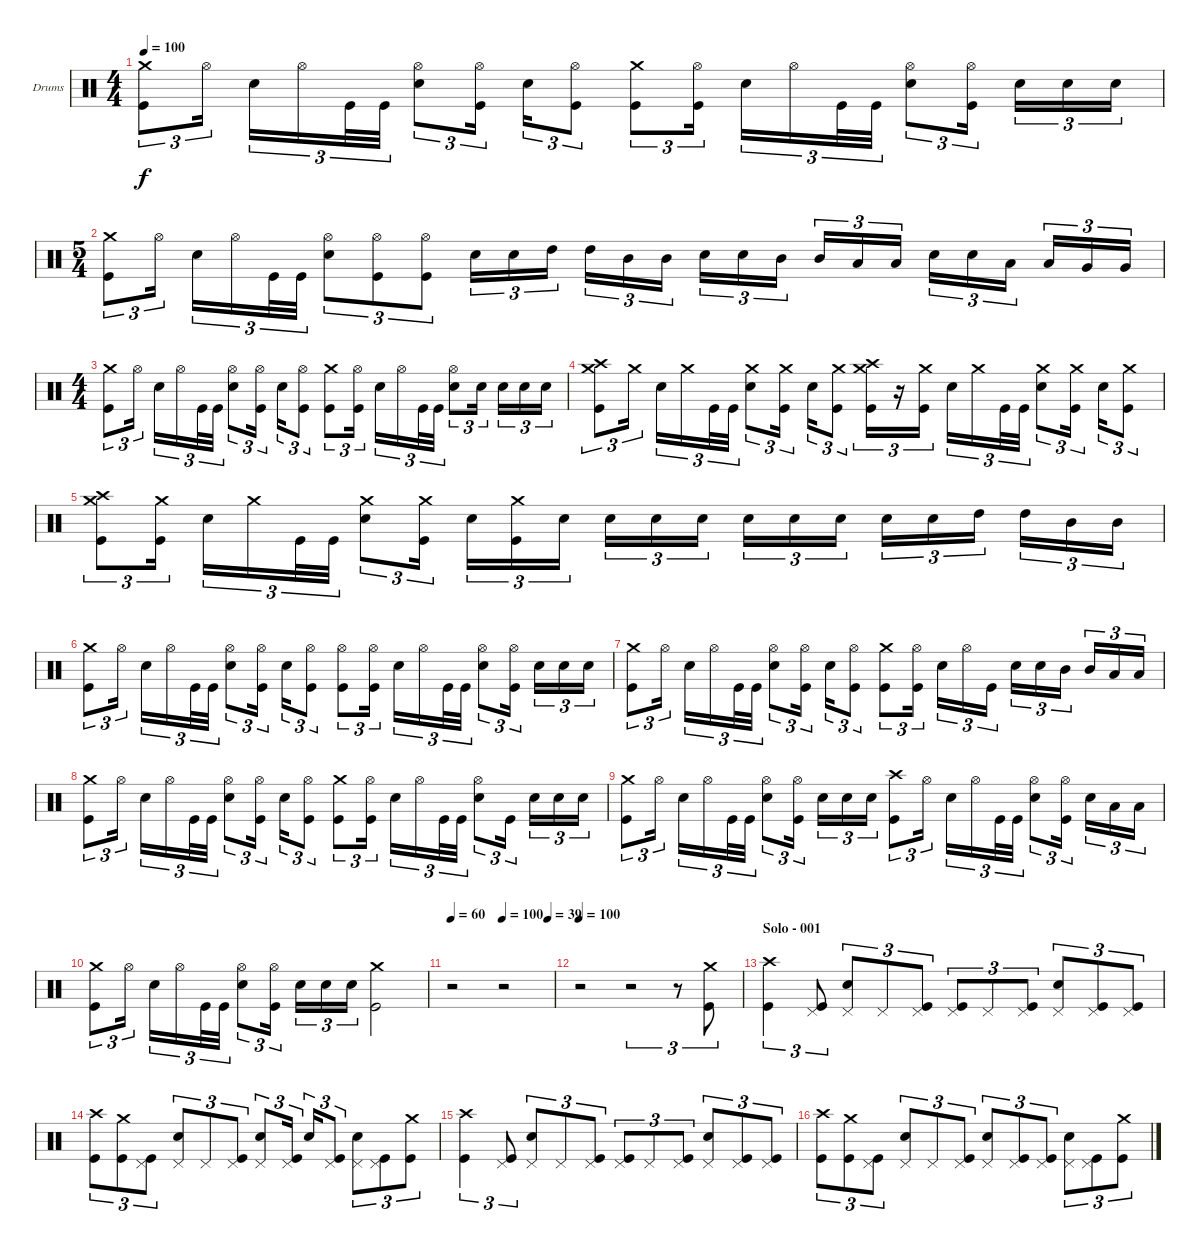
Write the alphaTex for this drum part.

\bracketExtendMode groupsimilarinstruments
\firstSystemTrackNameOrientation horizontal
\otherSystemsTrackNameOrientation horizontal
\track ("drums (Anton Zulganov)" "Drums") {instrument percussion}
\staff {score}
\articulation defaults
\ts (4 4)
\beaming (8 2 2 2 2)
\tempo 100
\clef neutral
\ks aminor
("Kick (hit)" "Crash medium (hit)").8{tu (3 2) dy f} "Hi-Hat (open)".16{tu (3 2)} "Snare (hit) 2".16{tu (3 2)} "Hi-Hat (open)".16{tu (3 2)} "Kick (hit)".32{tu (3 2)} "Kick (hit)".32{tu (3 2)} ("Snare (hit) 2" "Hi-Hat (open)").8{tu (3 2)} ("Kick (hit)" "Hi-Hat (open)").16{tu (3 2)} "Snare (hit) 2".16{tu (3 2)} ("Kick (hit)" "Hi-Hat (open)").8{tu (3 2)} ("Kick (hit)" "Crash medium (hit)").8{tu (3 2)} ("Hi-Hat (open)" "Kick (hit)").16{tu (3 2)} "Snare (hit) 2".16{tu (3 2)} "Hi-Hat (open)".16{tu (3 2)} "Kick (hit)".32{tu (3 2)} "Kick (hit)".32{tu (3 2)} ("Snare (hit) 2" "Hi-Hat (open)").8{tu (3 2)} ("Kick (hit)" "Hi-Hat (open)").16{tu (3 2)} "Snare (hit) 2".16{tu (3 2)} "Snare (hit) 2".16{tu (3 2)} "Snare (hit) 2".16{tu (3 2)} |
\ts (5 4)
\beaming (8 2 2 2 4)
("Kick (hit)" "Crash medium (hit)").8{tu (3 2)} "Hi-Hat (open)".16{tu (3 2)} "Snare (hit) 2".16{tu (3 2)} "Hi-Hat (open)".16{tu (3 2)} "Kick (hit)".32{tu (3 2)} "Kick (hit)".32{tu (3 2)} ("Snare (hit) 2" "Hi-Hat (open)").8{tu (3 2)} ("Kick (hit)" "Hi-Hat (open)").8{tu (3 2)} ("Kick (hit)" "Hi-Hat (open)").8{tu (3 2)} "Snare (hit) 2".16{tu (3 2)} "Snare (hit) 2".16{tu (3 2)} "High Tom (hit)".16{tu (3 2)} "High Tom (hit)".16{tu (3 2)} "Mid Tom (hit)".16{tu (3 2)} "Mid Tom (hit)".16{tu (3 2)} "Snare (hit) 2".16{tu (3 2)} "Snare (hit) 2".16{tu (3 2)} "Mid Tom (hit)".16{tu (3 2)} "Mid Tom (hit)".16{tu (3 2)} "Low Tom (hit)".16{tu (3 2)} "Low Tom (hit)".16{tu (3 2)} "Snare (hit) 2".16{tu (3 2)} "Snare (hit) 2".16{tu (3 2)} "Low Tom (hit)".16{tu (3 2)} "Low Tom (hit)".16{tu (3 2)} "Very Low Tom (hit)".16{tu (3 2)} "Very Low Tom (hit)".16{tu (3 2)} |
\ts (4 4)
\beaming (8 2 2 2 2)
("Kick (hit)" "Crash medium (hit)").8{tu (3 2)} "Hi-Hat (open)".16{tu (3 2)} "Snare (hit) 2".16{tu (3 2)} "Hi-Hat (open)".16{tu (3 2)} "Kick (hit)".32{tu (3 2)} "Kick (hit)".32{tu (3 2)} ("Snare (hit) 2" "Hi-Hat (open)").8{tu (3 2)} ("Kick (hit)" "Hi-Hat (open)").16{tu (3 2)} "Snare (hit) 2".16{tu (3 2)} ("Kick (hit)" "Hi-Hat (open)").8{tu (3 2)} ("Kick (hit)" "Crash medium (hit)").8{tu (3 2)} ("Hi-Hat (open)" "Kick (hit)").16{tu (3 2)} "Snare (hit) 2".16{tu (3 2)} "Hi-Hat (open)".16{tu (3 2)} "Kick (hit)".32{tu (3 2)} "Kick (hit)".32{tu (3 2)} ("Snare (hit) 2" "Hi-Hat (open)").8{tu (3 2)} "Snare (hit) 2".16{tu (3 2)} "Snare (hit) 2".16{tu (3 2)} "Snare (hit) 2".16{tu (3 2)} "Snare (hit) 2".16{tu (3 2)} |
("Kick (hit)" "Crash medium (hit)" "Crash high (hit)").8{tu (3 2)} "Crash medium (hit)".16{tu (3 2)} "Snare (hit) 2".16{tu (3 2)} "Crash medium (hit)".16{tu (3 2)} "Kick (hit)".32{tu (3 2)} "Kick (hit)".32{tu (3 2)} ("Snare (hit) 2" "Crash medium (hit)").8{tu (3 2)} ("Kick (hit)" "Crash medium (hit)").16{tu (3 2)} "Snare (hit) 2".16{tu (3 2)} ("Kick (hit)" "Crash medium (hit)").8{tu (3 2)} ("Kick (hit)" "Crash medium (hit)" "Crash high (hit)").16{tu (3 2)} r.16{tu (3 2)} ("Kick (hit)" "Crash medium (hit)").16{tu (3 2)} "Snare (hit) 2".16{tu (3 2)} "Crash medium (hit)".16{tu (3 2)} "Kick (hit)".32{tu (3 2)} "Kick (hit)".32{tu (3 2)} ("Snare (hit) 2" "Crash medium (hit)").8{tu (3 2)} ("Kick (hit)" "Crash medium (hit)").16{tu (3 2)} "Snare (hit) 2".16{tu (3 2)} ("Kick (hit)" "Crash medium (hit)").8{tu (3 2)} |
("Kick (hit)" "Crash medium (hit)" "Crash high (hit)").8{tu (3 2)} ("Kick (hit)" "Crash medium (hit)").16{tu (3 2)} "Snare (hit) 2".16{tu (3 2)} "Crash medium (hit)".16{tu (3 2)} "Kick (hit)".32{tu (3 2)} "Kick (hit)".32{tu (3 2)} ("Snare (hit) 2" "Crash medium (hit)").8{tu (3 2)} ("Kick (hit)" "Crash medium (hit)").16{tu (3 2)} "Snare (hit) 2".16{tu (3 2)} ("Kick (hit)" "Crash medium (hit)").16{tu (3 2)} "Snare (hit) 2".16{tu (3 2)} "Snare (hit) 2".16{tu (3 2)} "Snare (hit) 2".16{tu (3 2)} "Snare (hit) 2".16{tu (3 2)} "Snare (hit) 2".16{tu (3 2)} "Snare (hit) 2".16{tu (3 2)} "Snare (hit) 2".16{tu (3 2)} "Snare (hit) 2".16{tu (3 2)} "Snare (hit) 2".16{tu (3 2)} "High Tom (hit)".16{tu (3 2)} "High Tom (hit)".16{tu (3 2)} "Mid Tom (hit)".16{tu (3 2)} "Mid Tom (hit)".16{tu (3 2)} |
("Kick (hit)" "Crash medium (hit)").8{tu (3 2)} "Hi-Hat (open)".16{tu (3 2)} "Snare (hit) 2".16{tu (3 2)} "Hi-Hat (open)".16{tu (3 2)} "Kick (hit)".32{tu (3 2)} "Kick (hit)".32{tu (3 2)} ("Snare (hit) 2" "Hi-Hat (open)").8{tu (3 2)} ("Kick (hit)" "Hi-Hat (open)").16{tu (3 2)} "Snare (hit) 2".16{tu (3 2)} ("Kick (hit)" "Hi-Hat (open)").8{tu (3 2)} ("Kick (hit)" "Hi-Hat (open)").8{tu (3 2)} ("Hi-Hat (open)" "Kick (hit)").16{tu (3 2)} "Snare (hit) 2".16{tu (3 2)} "Hi-Hat (open)".16{tu (3 2)} "Kick (hit)".32{tu (3 2)} "Kick (hit)".32{tu (3 2)} ("Snare (hit) 2" "Hi-Hat (open)").8{tu (3 2)} ("Kick (hit)" "Hi-Hat (open)").16{tu (3 2)} "Snare (hit) 2".16{tu (3 2)} "Snare (hit) 2".16{tu (3 2)} "Snare (hit) 2".16{tu (3 2)} |
("Kick (hit)" "Crash medium (hit)").8{tu (3 2)} "Hi-Hat (open)".16{tu (3 2)} "Snare (hit) 2".16{tu (3 2)} "Hi-Hat (open)".16{tu (3 2)} "Kick (hit)".32{tu (3 2)} "Kick (hit)".32{tu (3 2)} ("Snare (hit) 2" "Hi-Hat (open)").8{tu (3 2)} ("Kick (hit)" "Hi-Hat (open)").16{tu (3 2)} "Snare (hit) 2".16{tu (3 2)} ("Kick (hit)" "Hi-Hat (open)").8{tu (3 2)} ("Kick (hit)" "Crash medium (hit)").8{tu (3 2)} ("Hi-Hat (open)" "Kick (hit)").16{tu (3 2)} "Snare (hit) 2".16{tu (3 2)} "Hi-Hat (open)".16{tu (3 2)} "Kick (hit)".16{tu (3 2)} "Snare (hit) 2".16{tu (3 2)} "Snare (hit) 2".16{tu (3 2)} "Mid Tom (hit)".16{tu (3 2)} "Mid Tom (hit)".16{tu (3 2)} "Low Tom (hit)".16{tu (3 2)} "Low Tom (hit)".16{tu (3 2)} |
("Kick (hit)" "Crash medium (hit)").8{tu (3 2)} "Hi-Hat (open)".16{tu (3 2)} "Snare (hit) 2".16{tu (3 2)} "Hi-Hat (open)".16{tu (3 2)} "Kick (hit)".32{tu (3 2)} "Kick (hit)".32{tu (3 2)} ("Snare (hit) 2" "Hi-Hat (open)").8{tu (3 2)} ("Kick (hit)" "Hi-Hat (open)").16{tu (3 2)} "Snare (hit) 2".16{tu (3 2)} ("Hi-Hat (open)" "Kick (hit)").8{tu (3 2)} ("Kick (hit)" "Crash medium (hit)").8{tu (3 2)} ("Hi-Hat (open)" "Kick (hit)").16{tu (3 2)} "Snare (hit) 2".16{tu (3 2)} "Hi-Hat (open)".16{tu (3 2)} "Kick (hit)".32{tu (3 2)} "Kick (hit)".32{tu (3 2)} ("Snare (hit) 2" "Hi-Hat (open)").8{tu (3 2)} "Kick (hit)".16{tu (3 2)} "Snare (hit) 2".16{tu (3 2)} "Snare (hit) 2".16{tu (3 2)} "Snare (hit) 2".16{tu (3 2)} |
("Kick (hit)" "Crash medium (hit)").8{tu (3 2)} "Hi-Hat (open)".16{tu (3 2)} "Snare (hit) 2".16{tu (3 2)} "Hi-Hat (open)".16{tu (3 2)} "Kick (hit)".32{tu (3 2)} "Kick (hit)".32{tu (3 2)} ("Snare (hit) 2" "Hi-Hat (open)").8{tu (3 2)} ("Kick (hit)" "Hi-Hat (open)").16{tu (3 2)} "Snare (hit) 2".16{tu (3 2)} "Snare (hit) 2".16{tu (3 2)} "Snare (hit) 2".16{tu (3 2)} ("Kick (hit)" "Crash high (hit)").8{tu (3 2)} "Hi-Hat (open)".16{tu (3 2)} "Snare (hit) 2".16{tu (3 2)} "Hi-Hat (open)".16{tu (3 2)} "Kick (hit)".32{tu (3 2)} "Kick (hit)".32{tu (3 2)} ("Snare (hit) 2" "Hi-Hat (open)").8{tu (3 2)} ("Kick (hit)" "Hi-Hat (open)").16{tu (3 2)} "Snare (hit) 2".16{tu (3 2)} "Low Tom (hit)".16{tu (3 2)} "Low Tom (hit)".16{tu (3 2)} |
("Kick (hit)" "Crash medium (hit)").8{tu (3 2)} "Hi-Hat (open)".16{tu (3 2)} "Snare (hit) 2".16{tu (3 2)} "Hi-Hat (open)".16{tu (3 2)} "Kick (hit)".32{tu (3 2)} "Kick (hit)".32{tu (3 2)} ("Snare (hit) 2" "Hi-Hat (open)").8{tu (3 2)} ("Kick (hit)" "Hi-Hat (open)").16{tu (3 2)} "Snare (hit) 2".16{tu (3 2)} "Snare (hit) 2".16{tu (3 2)} "Snare (hit) 2".16{tu (3 2)} ("Kick (hit)" "Crash medium (hit)").2 |
\tempo 60
\tempo (100 0.5)
\tempo (39 0.94375)
r.2 r.2 |
\tempo 100
r.2 r.2{tu (3 2)} r.8{tu (3 2)} ("Kick (hit)" "Crash medium (hit)").8{tu (3 2)} |
\section ("" "Solo - 001")
("Kick (hit)" "Crash high (hit)").4{tu (3 2)} ("Kick (hit)" "Pedal Hi-Hat (hit)").8{tu (3 2)} ("Snare (hit) 2" "Pedal Hi-Hat (hit)").8{tu (3 2)} "Pedal Hi-Hat (hit)".8{tu (3 2)} ("Kick (hit)" "Pedal Hi-Hat (hit)").8{tu (3 2)} ("Kick (hit)" "Pedal Hi-Hat (hit)").8{tu (3 2)} "Pedal Hi-Hat (hit)".8{tu (3 2)} ("Kick (hit)" "Pedal Hi-Hat (hit)").8{tu (3 2)} ("Snare (hit) 2" "Pedal Hi-Hat (hit)").8{tu (3 2)} ("Kick (hit)" "Pedal Hi-Hat (hit)").8{tu (3 2)} ("Kick (hit)" "Pedal Hi-Hat (hit)").8{tu (3 2)} |
("Kick (hit)" "Crash high (hit)").8{tu (3 2)} ("Kick (hit)" "Crash medium (hit)").8{tu (3 2)} ("Kick (hit)" "Pedal Hi-Hat (hit)").8{tu (3 2)} ("Snare (hit) 2" "Pedal Hi-Hat (hit)").8{tu (3 2)} "Pedal Hi-Hat (hit)".8{tu (3 2)} ("Kick (hit)" "Pedal Hi-Hat (hit)").8{tu (3 2)} ("Snare (hit) 2" "Pedal Hi-Hat (hit)").8{tu (3 2)} ("Pedal Hi-Hat (hit)" "Kick (hit)").16{tu (3 2)} "Snare (hit) 2".16{tu (3 2)} ("Pedal Hi-Hat (hit)" "Kick (hit)").8{tu (3 2)} ("Snare (hit) 2" "Pedal Hi-Hat (hit)").8{tu (3 2)} ("Kick (hit)" "Pedal Hi-Hat (hit)").8{tu (3 2)} ("Kick (hit)" "Crash medium (hit)").8{tu (3 2)} |
("Kick (hit)" "Crash high (hit)").4{tu (3 2)} ("Kick (hit)" "Pedal Hi-Hat (hit)").8{tu (3 2)} ("Snare (hit) 2" "Pedal Hi-Hat (hit)").8{tu (3 2)} "Pedal Hi-Hat (hit)".8{tu (3 2)} ("Kick (hit)" "Pedal Hi-Hat (hit)").8{tu (3 2)} ("Kick (hit)" "Pedal Hi-Hat (hit)").8{tu (3 2)} "Pedal Hi-Hat (hit)".8{tu (3 2)} ("Kick (hit)" "Pedal Hi-Hat (hit)").8{tu (3 2)} ("Snare (hit) 2" "Pedal Hi-Hat (hit)").8{tu (3 2)} ("Kick (hit)" "Pedal Hi-Hat (hit)").8{tu (3 2)} ("Kick (hit)" "Pedal Hi-Hat (hit)").8{tu (3 2)} |
("Kick (hit)" "Crash high (hit)").8{tu (3 2)} ("Kick (hit)" "Crash medium (hit)").8{tu (3 2)} ("Kick (hit)" "Pedal Hi-Hat (hit)").8{tu (3 2)} ("Snare (hit) 2" "Pedal Hi-Hat (hit)").8{tu (3 2)} "Pedal Hi-Hat (hit)".8{tu (3 2)} ("Kick (hit)" "Pedal Hi-Hat (hit)").8{tu (3 2)} ("Snare (hit) 2" "Pedal Hi-Hat (hit)").8{tu (3 2)} ("Kick (hit)" "Pedal Hi-Hat (hit)").8{tu (3 2)} ("Kick (hit)" "Pedal Hi-Hat (hit)").8{tu (3 2)} ("Snare (hit) 2" "Pedal Hi-Hat (hit)").8{tu (3 2)} ("Kick (hit)" "Pedal Hi-Hat (hit)").8{tu (3 2)} ("Kick (hit)" "Crash medium (hit)").8{tu (3 2)}
